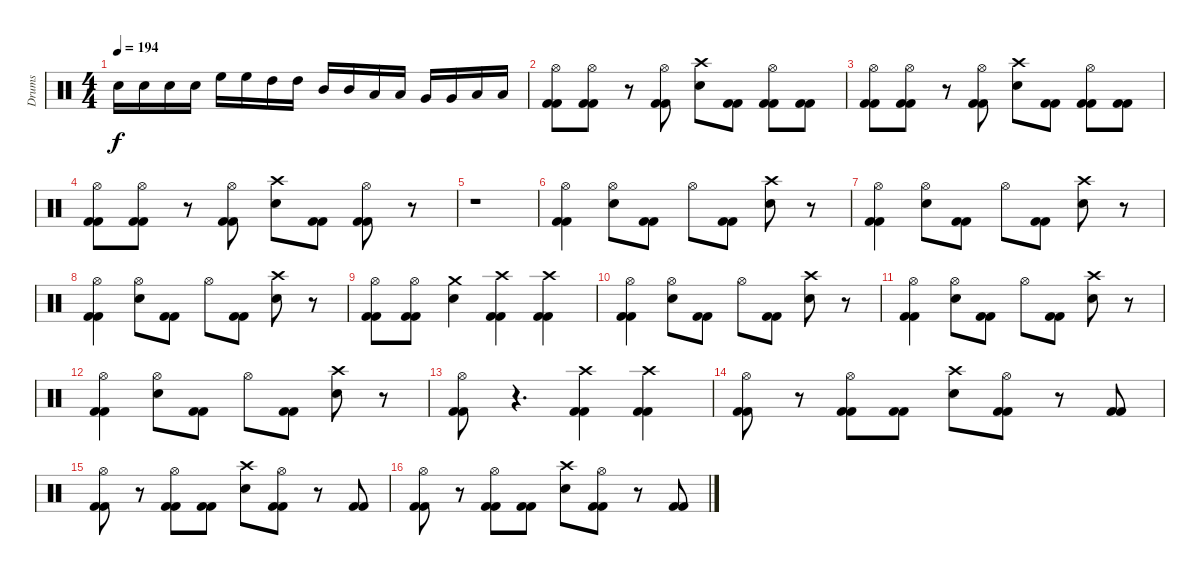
\track ("Drums" "Drums") {instrument percussion}
\staff {score}
\articulation defaults
\ts (4 4)
\tempo 194
\clef neutral
\ks c "Electric Snare (hit)".16{dy f} "Electric Snare (hit)".16 "Electric Snare (hit)".16 "Electric Snare (hit)".16 "High Floor Tom (hit)".16 "High Floor Tom (hit)".16 "High Tom (hit)".16 "High Tom (hit)".16 "Mid Tom (hit)".16 "Mid Tom (hit)".16 "Low Tom (hit)".16 "Low Tom (hit)".16 "Very Low Tom (hit)".16 "Very Low Tom (hit)".16 "Low Floor Tom (hit)".16 "Low Floor Tom (hit)".16
|
("Hi-Hat (open)" "Kick (hit) 2" "Kick (hit) 2").8 ("Hi-Hat (open)" "Kick (hit) 2" "Kick (hit) 2").8 r.8 ("Hi-Hat (open)" "Kick (hit) 2" "Kick (hit) 2").8 ("Crash high (hit)" "Electric Snare (hit)").8 ("Kick (hit) 2" "Kick (hit) 2").8 ("Hi-Hat (open)" "Kick (hit) 2" "Kick (hit) 2").8 ("Kick (hit) 2" "Kick (hit) 2").8 |
("Hi-Hat (open)" "Kick (hit) 2" "Kick (hit) 2").8 ("Hi-Hat (open)" "Kick (hit) 2" "Kick (hit) 2").8 r.8 ("Hi-Hat (open)" "Kick (hit) 2" "Kick (hit) 2").8 ("Crash high (hit)" "Electric Snare (hit)").8 ("Kick (hit) 2" "Kick (hit) 2").8 ("Hi-Hat (open)" "Kick (hit) 2" "Kick (hit) 2").8 ("Kick (hit) 2" "Kick (hit) 2").8 |
("Hi-Hat (open)" "Kick (hit) 2" "Kick (hit) 2").8 ("Hi-Hat (open)" "Kick (hit) 2" "Kick (hit) 2").8 r.8 ("Hi-Hat (open)" "Kick (hit) 2" "Kick (hit) 2").8 ("Crash high (hit)" "Electric Snare (hit)").8 ("Kick (hit) 2" "Kick (hit) 2").8 ("Hi-Hat (open)" "Kick (hit) 2" "Kick (hit) 2").8 r.8 |
r.1 |
("Hi-Hat (open)" "Kick (hit) 2" "Kick (hit) 2").4 ("Hi-Hat (open)" "Electric Snare (hit)").8 ("Kick (hit) 2" "Kick (hit) 2").8 "Hi-Hat (open)".8 ("Kick (hit) 2" "Kick (hit) 2").8 ("Crash high (hit)" "Electric Snare (hit)").8 r.8 |
("Hi-Hat (open)" "Kick (hit) 2" "Kick (hit) 2").4 ("Hi-Hat (open)" "Electric Snare (hit)").8 ("Kick (hit) 2" "Kick (hit) 2").8 "Hi-Hat (open)".8 ("Kick (hit) 2" "Kick (hit) 2").8 ("Crash high (hit)" "Electric Snare (hit)").8 r.8 |
("Hi-Hat (open)" "Kick (hit) 2" "Kick (hit) 2").4 ("Hi-Hat (open)" "Electric Snare (hit)").8 ("Kick (hit) 2" "Kick (hit) 2").8 "Hi-Hat (open)".8 ("Kick (hit) 2" "Kick (hit) 2").8 ("Crash high (hit)" "Electric Snare (hit)").8 r.8 |
("Hi-Hat (open)" "Kick (hit) 2" "Kick (hit) 2").8 ("Hi-Hat (open)" "Kick (hit) 2" "Kick (hit) 2").8 ("Crash medium (hit)" "Electric Snare (hit)").4 ("Crash high (hit)" "Kick (hit) 2" "Kick (hit) 2").4 ("Crash high (hit)" "Kick (hit) 2" "Kick (hit) 2").4 |
("Hi-Hat (open)" "Kick (hit) 2" "Kick (hit) 2").4 ("Hi-Hat (open)" "Electric Snare (hit)").8 ("Kick (hit) 2" "Kick (hit) 2").8 "Hi-Hat (open)".8 ("Kick (hit) 2" "Kick (hit) 2").8 ("Crash high (hit)" "Electric Snare (hit)").8 r.8 |
("Hi-Hat (open)" "Kick (hit) 2" "Kick (hit) 2").4 ("Hi-Hat (open)" "Electric Snare (hit)").8 ("Kick (hit) 2" "Kick (hit) 2").8 "Hi-Hat (open)".8 ("Kick (hit) 2" "Kick (hit) 2").8 ("Crash high (hit)" "Electric Snare (hit)").8 r.8 |
("Hi-Hat (open)" "Kick (hit) 2" "Kick (hit) 2").4 ("Hi-Hat (open)" "Electric Snare (hit)").8 ("Kick (hit) 2" "Kick (hit) 2").8 "Hi-Hat (open)".8 ("Kick (hit) 2" "Kick (hit) 2").8 ("Crash high (hit)" "Electric Snare (hit)").8 r.8 |
("Hi-Hat (open)" "Kick (hit) 2" "Kick (hit) 2").8 r.4{d} ("Crash high (hit)" "Kick (hit) 2" "Kick (hit) 2").4 ("Crash high (hit)" "Kick (hit) 2" "Kick (hit) 2").4 |
("Hi-Hat (open)" "Kick (hit) 2" "Kick (hit) 2").8 r.8 ("Hi-Hat (open)" "Kick (hit) 2" "Kick (hit) 2").8 ("Kick (hit) 2" "Kick (hit) 2").8 ("Crash high (hit)" "Electric Snare (hit)").8 ("Hi-Hat (open)" "Kick (hit) 2" "Kick (hit) 2").8 r.8 ("Kick (hit) 2" "Kick (hit) 2").8 |
("Hi-Hat (open)" "Kick (hit) 2" "Kick (hit) 2").8 r.8 ("Hi-Hat (open)" "Kick (hit) 2" "Kick (hit) 2").8 ("Kick (hit) 2" "Kick (hit) 2").8 ("Crash high (hit)" "Electric Snare (hit)").8 ("Hi-Hat (open)" "Kick (hit) 2" "Kick (hit) 2").8 r.8 ("Kick (hit) 2" "Kick (hit) 2").8 |
("Hi-Hat (open)" "Kick (hit) 2" "Kick (hit) 2").8 r.8 ("Hi-Hat (open)" "Kick (hit) 2" "Kick (hit) 2").8 ("Kick (hit) 2" "Kick (hit) 2").8 ("Crash high (hit)" "Electric Snare (hit)").8 ("Hi-Hat (open)" "Kick (hit) 2" "Kick (hit) 2").8 r.8 ("Kick (hit) 2" "Kick (hit) 2").8
